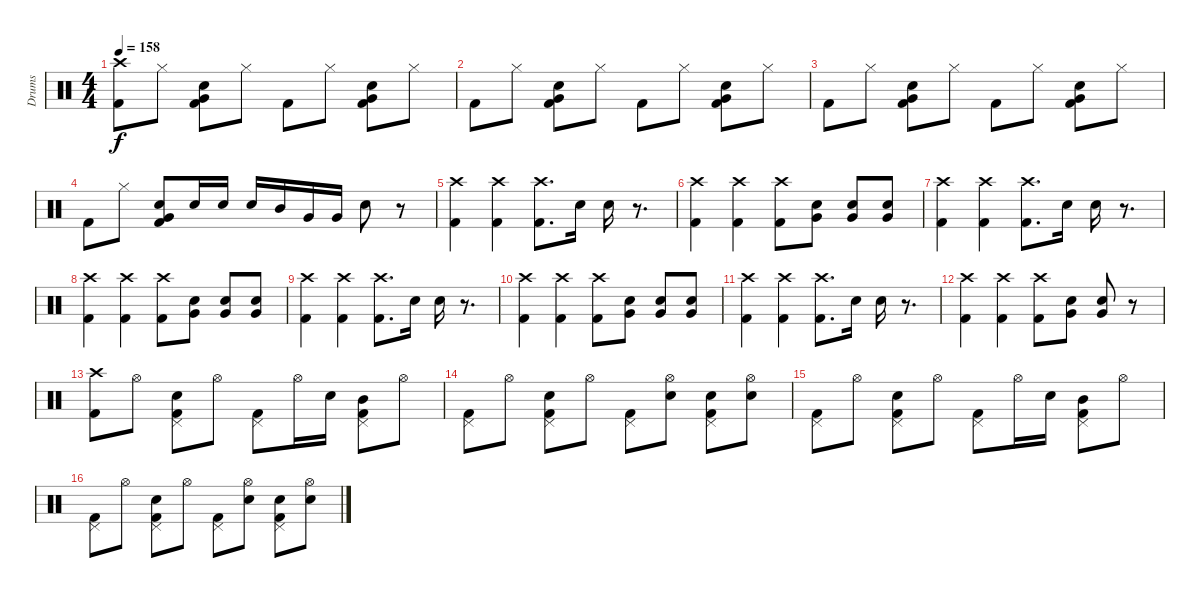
\track ("Drums" "Drums") {instrument percussion}
\staff {score}
\articulation defaults
\ts (4 4)
\tempo 158
\clef neutral
\ks c
("Crash high (hit)" "Kick (hit) 2").8{dy f} "Hi-Hat (closed)".8 ("Electric Snare (hit)" "Very Low Tom (hit)" "Kick (hit) 2").8 "Hi-Hat (closed)".8 "Kick (hit) 2".8 "Hi-Hat (closed)".8 ("Electric Snare (hit)" "Very Low Tom (hit)" "Kick (hit) 2").8 "Hi-Hat (closed)".8 |
"Kick (hit) 2".8 "Hi-Hat (closed)".8 ("Electric Snare (hit)" "Very Low Tom (hit)" "Kick (hit) 2").8 "Hi-Hat (closed)".8 "Kick (hit) 2".8 "Hi-Hat (closed)".8 ("Electric Snare (hit)" "Very Low Tom (hit)" "Kick (hit) 2").8 "Hi-Hat (closed)".8 |
"Kick (hit) 2".8 "Hi-Hat (closed)".8 ("Electric Snare (hit)" "Very Low Tom (hit)" "Kick (hit) 2").8 "Hi-Hat (closed)".8 "Kick (hit) 2".8 "Hi-Hat (closed)".8 ("Electric Snare (hit)" "Very Low Tom (hit)" "Kick (hit) 2").8 "Hi-Hat (closed)".8 |
"Kick (hit) 2".8 "Hi-Hat (closed)".8 ("Electric Snare (hit)" "Very Low Tom (hit)" "Kick (hit) 2").8 "Electric Snare (hit)".16 "Electric Snare (hit)".16 "Electric Snare (hit)".16 "Mid Tom (hit)".16 "Very Low Tom (hit)".16 "Very Low Tom (hit)".16 "Electric Snare (hit)".8 r.8 |
("Crash high (hit)" "Kick (hit) 2").4 ("Crash high (hit)" "Kick (hit) 2").4 ("Crash high (hit)" "Kick (hit) 2").8{d} "Electric Snare (hit)".16 "Electric Snare (hit)".16 r.8{d} |
("Crash high (hit)" "Kick (hit) 2").4 ("Crash high (hit)" "Kick (hit) 2").4 ("Crash high (hit)" "Kick (hit) 2").8 ("Electric Snare (hit)" "Very Low Tom (hit)").8 ("Electric Snare (hit)" "Very Low Tom (hit)").8 ("Electric Snare (hit)" "Very Low Tom (hit)").8 |
("Crash high (hit)" "Kick (hit) 2").4 ("Crash high (hit)" "Kick (hit) 2").4 ("Crash high (hit)" "Kick (hit) 2").8{d} "Electric Snare (hit)".16 "Electric Snare (hit)".16 r.8{d} |
("Crash high (hit)" "Kick (hit) 2").4 ("Crash high (hit)" "Kick (hit) 2").4 ("Crash high (hit)" "Kick (hit) 2").8 ("Electric Snare (hit)" "Very Low Tom (hit)").8 ("Electric Snare (hit)" "Very Low Tom (hit)").8 ("Electric Snare (hit)" "Very Low Tom (hit)").8 |
("Crash high (hit)" "Kick (hit) 2").4 ("Crash high (hit)" "Kick (hit) 2").4 ("Crash high (hit)" "Kick (hit) 2").8{d} "Electric Snare (hit)".16 "Electric Snare (hit)".16 r.8{d} |
("Crash high (hit)" "Kick (hit) 2").4 ("Crash high (hit)" "Kick (hit) 2").4 ("Crash high (hit)" "Kick (hit) 2").8 ("Electric Snare (hit)" "Very Low Tom (hit)").8 ("Electric Snare (hit)" "Very Low Tom (hit)").8 ("Electric Snare (hit)" "Very Low Tom (hit)").8 |
("Crash high (hit)" "Kick (hit) 2").4 ("Crash high (hit)" "Kick (hit) 2").4 ("Crash high (hit)" "Kick (hit) 2").8{d} "Electric Snare (hit)".16 "Electric Snare (hit)".16 r.8{d} |
("Crash high (hit)" "Kick (hit) 2").4 ("Crash high (hit)" "Kick (hit) 2").4 ("Crash high (hit)" "Kick (hit) 2").8 ("Electric Snare (hit)" "Very Low Tom (hit)").8 ("Electric Snare (hit)" "Very Low Tom (hit)").8 r.8 |
("Crash high (hit)" "Kick (hit) 2").8 "Hi-Hat (open)".8 ("Pedal Hi-Hat (hit)" "Electric Snare (hit)" "Kick (hit) 2").8 "Hi-Hat (open)".8 ("Pedal Hi-Hat (hit)" "Kick (hit) 2").8 "Hi-Hat (open)".16 "Electric Snare (hit)".16 ("Pedal Hi-Hat (hit)" "Mid Tom (hit)" "Kick (hit) 2").8 "Hi-Hat (open)".8 |
("Pedal Hi-Hat (hit)" "Kick (hit) 2").8 "Hi-Hat (open)".8 ("Pedal Hi-Hat (hit)" "Electric Snare (hit)" "Kick (hit) 2").8 "Hi-Hat (open)".8 ("Pedal Hi-Hat (hit)" "Kick (hit) 2").8 ("Hi-Hat (open)" "Electric Snare (hit)").8 ("Pedal Hi-Hat (hit)" "Electric Snare (hit)" "Kick (hit) 2").8 ("Hi-Hat (open)" "Electric Snare (hit)").8 |
("Pedal Hi-Hat (hit)" "Kick (hit) 2").8 "Hi-Hat (open)".8 ("Pedal Hi-Hat (hit)" "Electric Snare (hit)" "Kick (hit) 2").8 "Hi-Hat (open)".8 ("Pedal Hi-Hat (hit)" "Kick (hit) 2").8 "Hi-Hat (open)".16 "Electric Snare (hit)".16 ("Pedal Hi-Hat (hit)" "Mid Tom (hit)" "Kick (hit) 2").8 "Hi-Hat (open)".8 |
("Pedal Hi-Hat (hit)" "Kick (hit) 2").8 "Hi-Hat (open)".8 ("Pedal Hi-Hat (hit)" "Electric Snare (hit)" "Kick (hit) 2").8 "Hi-Hat (open)".8 ("Pedal Hi-Hat (hit)" "Kick (hit) 2").8 ("Hi-Hat (open)" "Electric Snare (hit)").8 ("Pedal Hi-Hat (hit)" "Electric Snare (hit)" "Kick (hit) 2").8 ("Hi-Hat (open)" "Electric Snare (hit)").8
